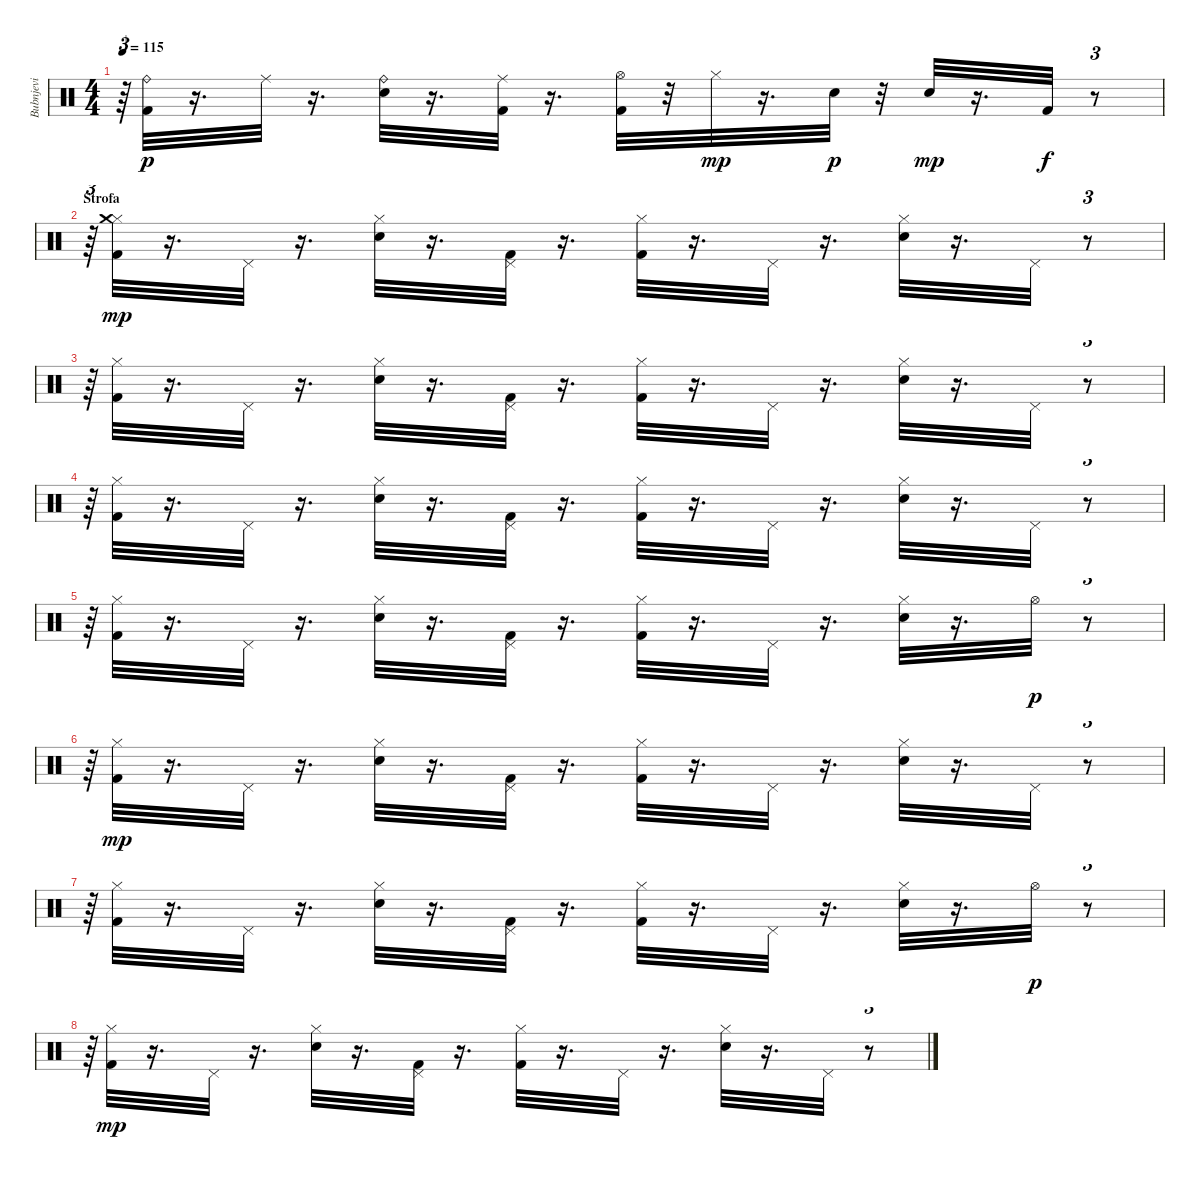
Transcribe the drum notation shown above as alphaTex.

\track ("Bubnjevi" "Bubnjevi") {instrument percussion}
\staff {score}
\articulation defaults
\ts (4 4)
\tempo 115
\clef neutral
\ks c
r.64{tu (3 2) dy p} ("Kick (hit) 2" "Ride (bell)").32 r.16{d} "Ride (middle)".32 r.16{d} ("Electric Snare (hit)" "Ride (bell)").32 r.16{d} ("Kick (hit) 2" "Ride (middle)").32 r.16{d} ("Hi-Hat (open)" "Kick (hit) 2").32 r.32 "Hi-Hat (closed)".32{dy mp} r.16{d} "Electric Snare (hit)".32{dy p} r.32 "Electric Snare (hit)".32{dy mp} r.16{d} "Kick (hit) 2".32{dy f} r.8{tu (3 2)} |
\section ("" "Strofa")
r.64{tu (3 2)} ("Hi-Hat (closed)" "Kick (hit) 2" "Crash medium (hit)").32{dy mp} r.16{d} "Pedal Hi-Hat (hit)".32 r.16{d} ("Hi-Hat (closed)" "Electric Snare (hit)").32 r.16{d} ("Pedal Hi-Hat (hit)" "Kick (hit) 2").32 r.16{d} ("Hi-Hat (closed)" "Kick (hit) 2").32 r.16{d} "Pedal Hi-Hat (hit)".32 r.16{d} ("Hi-Hat (closed)" "Electric Snare (hit)").32 r.16{d} "Pedal Hi-Hat (hit)".32 r.8{tu (3 2)} |
r.64{tu (3 2)} ("Kick (hit) 2" "Hi-Hat (closed)").32 r.16{d} "Pedal Hi-Hat (hit)".32 r.16{d} ("Electric Snare (hit)" "Hi-Hat (closed)").32 r.16{d} ("Kick (hit) 2" "Pedal Hi-Hat (hit)").32 r.16{d} ("Kick (hit) 2" "Hi-Hat (closed)").32 r.16{d} "Pedal Hi-Hat (hit)".32 r.16{d} ("Electric Snare (hit)" "Hi-Hat (closed)").32 r.16{d} "Pedal Hi-Hat (hit)".32 r.8{tu (3 2)} |
r.64{tu (3 2)} ("Kick (hit) 2" "Hi-Hat (closed)").32 r.16{d} "Pedal Hi-Hat (hit)".32 r.16{d} ("Electric Snare (hit)" "Hi-Hat (closed)").32 r.16{d} ("Kick (hit) 2" "Pedal Hi-Hat (hit)").32 r.16{d} ("Kick (hit) 2" "Hi-Hat (closed)").32 r.16{d} "Pedal Hi-Hat (hit)".32 r.16{d} ("Electric Snare (hit)" "Hi-Hat (closed)").32 r.16{d} "Pedal Hi-Hat (hit)".32 r.8{tu (3 2)} |
r.64{tu (3 2)} ("Hi-Hat (closed)" "Kick (hit) 2").32 r.16{d} "Pedal Hi-Hat (hit)".32 r.16{d} ("Hi-Hat (closed)" "Electric Snare (hit)").32 r.16{d} ("Pedal Hi-Hat (hit)" "Kick (hit) 2").32 r.16{d} ("Hi-Hat (closed)" "Kick (hit) 2").32 r.16{d} "Pedal Hi-Hat (hit)".32 r.16{d} ("Hi-Hat (closed)" "Electric Snare (hit)").32 r.16{d} "Hi-Hat (open)".32{dy p} r.8{tu (3 2)} |
r.64{tu (3 2)} ("Kick (hit) 2" "Hi-Hat (closed)").32{dy mp} r.16{d} "Pedal Hi-Hat (hit)".32 r.16{d} ("Electric Snare (hit)" "Hi-Hat (closed)").32 r.16{d} ("Kick (hit) 2" "Pedal Hi-Hat (hit)").32 r.16{d} ("Kick (hit) 2" "Hi-Hat (closed)").32 r.16{d} "Pedal Hi-Hat (hit)".32 r.16{d} ("Electric Snare (hit)" "Hi-Hat (closed)").32 r.16{d} "Pedal Hi-Hat (hit)".32 r.8{tu (3 2)} |
r.64{tu (3 2)} ("Hi-Hat (closed)" "Kick (hit) 2").32 r.16{d} "Pedal Hi-Hat (hit)".32 r.16{d} ("Hi-Hat (closed)" "Electric Snare (hit)").32 r.16{d} ("Pedal Hi-Hat (hit)" "Kick (hit) 2").32 r.16{d} ("Hi-Hat (closed)" "Kick (hit) 2").32 r.16{d} "Pedal Hi-Hat (hit)".32 r.16{d} ("Hi-Hat (closed)" "Electric Snare (hit)").32 r.16{d} "Hi-Hat (open)".32{dy p} r.8{tu (3 2)} |
r.64{tu (3 2)} ("Hi-Hat (closed)" "Kick (hit) 2").32{dy mp} r.16{d} "Pedal Hi-Hat (hit)".32 r.16{d} ("Hi-Hat (closed)" "Electric Snare (hit)").32 r.16{d} ("Pedal Hi-Hat (hit)" "Kick (hit) 2").32 r.16{d} ("Hi-Hat (closed)" "Kick (hit) 2").32 r.16{d} "Pedal Hi-Hat (hit)".32 r.16{d} ("Hi-Hat (closed)" "Electric Snare (hit)").32 r.16{d} "Pedal Hi-Hat (hit)".32 r.8{tu (3 2)}
